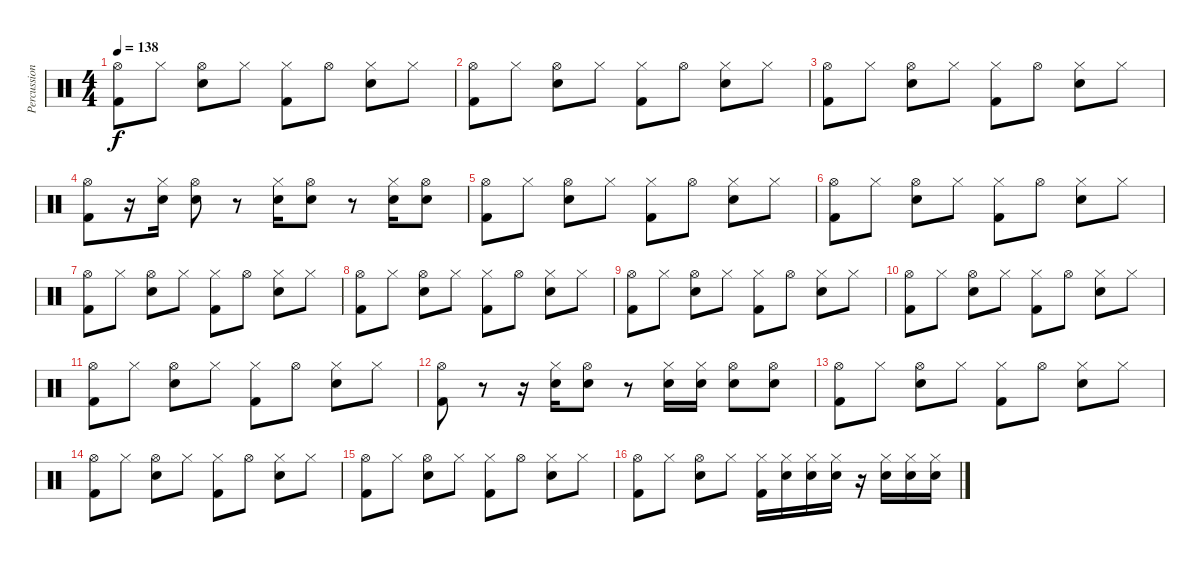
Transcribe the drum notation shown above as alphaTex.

\track ("Percussions" "Percussion") {instrument percussion}
\staff {score}
\articulation defaults
\ts (4 4)
\tempo 138
\clef neutral
\ks c
("Hi-Hat (open)" "Kick (hit) 2").8{dy f} "Hi-Hat (closed)".8 ("Hi-Hat (open)" "Snare (hit) 2").8 "Hi-Hat (closed)".8 ("Hi-Hat (closed)" "Kick (hit) 2").8 "Hi-Hat (open)".8 ("Hi-Hat (closed)" "Snare (hit) 2").8 "Hi-Hat (closed)".8 |
("Hi-Hat (open)" "Kick (hit) 2").8 "Hi-Hat (closed)".8 ("Hi-Hat (open)" "Snare (hit) 2").8 "Hi-Hat (closed)".8 ("Hi-Hat (closed)" "Kick (hit) 2").8 "Hi-Hat (open)".8 ("Hi-Hat (closed)" "Snare (hit) 2").8 "Hi-Hat (closed)".8 |
("Hi-Hat (open)" "Kick (hit) 2").8 "Hi-Hat (closed)".8 ("Hi-Hat (open)" "Snare (hit) 2").8 "Hi-Hat (closed)".8 ("Hi-Hat (closed)" "Kick (hit) 2").8 "Hi-Hat (open)".8 ("Hi-Hat (closed)" "Snare (hit) 2").8 "Hi-Hat (closed)".8 |
("Hi-Hat (open)" "Kick (hit) 2").8 r.16 ("Hi-Hat (closed)" "Snare (hit) 2").16 ("Hi-Hat (open)" "Snare (hit) 2").8 r.8 ("Hi-Hat (closed)" "Snare (hit) 2").16 ("Hi-Hat (open)" "Snare (hit) 2").8 r.8 ("Hi-Hat (closed)" "Snare (hit) 2").16 ("Hi-Hat (open)" "Snare (hit) 2").8 |
("Hi-Hat (open)" "Kick (hit) 2").8 "Hi-Hat (closed)".8 ("Hi-Hat (open)" "Snare (hit) 2").8 "Hi-Hat (closed)".8 ("Hi-Hat (closed)" "Kick (hit) 2").8 "Hi-Hat (open)".8 ("Hi-Hat (closed)" "Snare (hit) 2").8 "Hi-Hat (closed)".8 |
("Hi-Hat (open)" "Kick (hit) 2").8 "Hi-Hat (closed)".8 ("Hi-Hat (open)" "Snare (hit) 2").8 "Hi-Hat (closed)".8 ("Hi-Hat (closed)" "Kick (hit) 2").8 "Hi-Hat (open)".8 ("Hi-Hat (closed)" "Snare (hit) 2").8 "Hi-Hat (closed)".8 |
("Hi-Hat (open)" "Kick (hit) 2").8 "Hi-Hat (closed)".8 ("Hi-Hat (open)" "Snare (hit) 2").8 "Hi-Hat (closed)".8 ("Hi-Hat (closed)" "Kick (hit) 2").8 "Hi-Hat (open)".8 ("Hi-Hat (closed)" "Snare (hit) 2").8 "Hi-Hat (closed)".8 |
("Hi-Hat (open)" "Kick (hit) 2").8 "Hi-Hat (closed)".8 ("Hi-Hat (open)" "Snare (hit) 2").8 "Hi-Hat (closed)".8 ("Hi-Hat (closed)" "Kick (hit) 2").8 "Hi-Hat (open)".8 ("Hi-Hat (closed)" "Snare (hit) 2").8 "Hi-Hat (closed)".8 |
("Hi-Hat (open)" "Kick (hit) 2").8 "Hi-Hat (closed)".8 ("Hi-Hat (open)" "Snare (hit) 2").8 "Hi-Hat (closed)".8 ("Hi-Hat (closed)" "Kick (hit) 2").8 "Hi-Hat (open)".8 ("Hi-Hat (closed)" "Snare (hit) 2").8 "Hi-Hat (closed)".8 |
("Hi-Hat (open)" "Kick (hit) 2").8 "Hi-Hat (closed)".8 ("Hi-Hat (open)" "Snare (hit) 2").8 "Hi-Hat (closed)".8 ("Hi-Hat (closed)" "Kick (hit) 2").8 "Hi-Hat (open)".8 ("Hi-Hat (closed)" "Snare (hit) 2").8 "Hi-Hat (closed)".8 |
("Hi-Hat (open)" "Kick (hit) 2").8 "Hi-Hat (closed)".8 ("Hi-Hat (open)" "Snare (hit) 2").8 "Hi-Hat (closed)".8 ("Hi-Hat (closed)" "Kick (hit) 2").8 "Hi-Hat (open)".8 ("Hi-Hat (closed)" "Snare (hit) 2").8 "Hi-Hat (closed)".8 |
("Hi-Hat (open)" "Kick (hit) 2").8 r.8 r.16 ("Hi-Hat (closed)" "Snare (hit) 2").16 ("Hi-Hat (open)" "Snare (hit) 2").8 r.8 ("Hi-Hat (closed)" "Snare (hit) 2").16 ("Hi-Hat (closed)" "Snare (hit) 2").16 ("Hi-Hat (open)" "Snare (hit) 2").8 ("Hi-Hat (open)" "Snare (hit) 2").8 |
("Hi-Hat (open)" "Kick (hit) 2").8 "Hi-Hat (closed)".8 ("Hi-Hat (open)" "Snare (hit) 2").8 "Hi-Hat (closed)".8 ("Hi-Hat (closed)" "Kick (hit) 2").8 "Hi-Hat (open)".8 ("Hi-Hat (closed)" "Snare (hit) 2").8 "Hi-Hat (closed)".8 |
("Hi-Hat (open)" "Kick (hit) 2").8 "Hi-Hat (closed)".8 ("Hi-Hat (open)" "Snare (hit) 2").8 "Hi-Hat (closed)".8 ("Hi-Hat (closed)" "Kick (hit) 2").8 "Hi-Hat (open)".8 ("Hi-Hat (closed)" "Snare (hit) 2").8 "Hi-Hat (closed)".8 |
("Hi-Hat (open)" "Kick (hit) 2").8 "Hi-Hat (closed)".8 ("Hi-Hat (open)" "Snare (hit) 2").8 "Hi-Hat (closed)".8 ("Hi-Hat (closed)" "Kick (hit) 2").8 "Hi-Hat (open)".8 ("Hi-Hat (closed)" "Snare (hit) 2").8 "Hi-Hat (closed)".8 |
("Hi-Hat (open)" "Kick (hit) 2").8 "Hi-Hat (closed)".8 ("Hi-Hat (open)" "Snare (hit) 2").8 "Hi-Hat (closed)".8 ("Hi-Hat (closed)" "Kick (hit) 2").16 ("Hi-Hat (closed)" "Snare (hit) 2").16 ("Hi-Hat (closed)" "Snare (hit) 2").16 ("Hi-Hat (closed)" "Snare (hit) 2").16 r.16 ("Hi-Hat (closed)" "Snare (hit) 2").16 ("Hi-Hat (closed)" "Snare (hit) 2").16 ("Hi-Hat (closed)" "Snare (hit) 2").16
